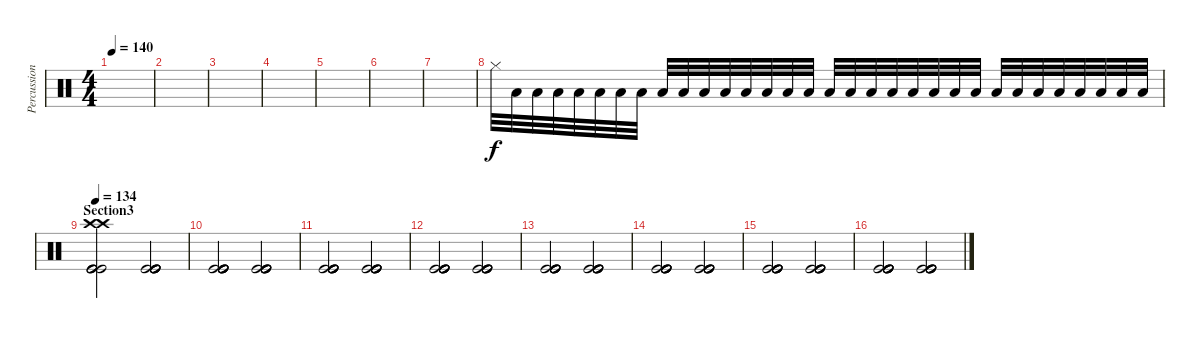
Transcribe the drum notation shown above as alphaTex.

\track ("Percussion" "Percussion") {instrument percussion}
\staff {score}
\articulation defaults
\ts (4 4)
\tempo 140
\clef neutral
\ks c
|
|
|
|
|
|
|
"Hi-Hat (closed)".32 "Low Floor Tom (hit)".32 "Low Floor Tom (hit)".32 "Low Floor Tom (hit)".32 "Low Floor Tom (hit)".32 "Low Floor Tom (hit)".32 "Low Floor Tom (hit)".32 "Low Floor Tom (hit)".32 "Low Floor Tom (hit)".32 "Low Floor Tom (hit)".32 "Low Floor Tom (hit)".32 "Low Floor Tom (hit)".32 "Low Floor Tom (hit)".32 "Low Floor Tom (hit)".32 "Low Floor Tom (hit)".32 "Low Floor Tom (hit)".32 "Low Floor Tom (hit)".32 "Low Floor Tom (hit)".32 "Low Floor Tom (hit)".32 "Low Floor Tom (hit)".32 "Low Floor Tom (hit)".32 "Low Floor Tom (hit)".32 "Low Floor Tom (hit)".32 "Low Floor Tom (hit)".32 "Low Floor Tom (hit)".32 "Low Floor Tom (hit)".32 "Low Floor Tom (hit)".32 "Low Floor Tom (hit)".32 "Low Floor Tom (hit)".32 "Low Floor Tom (hit)".32 "Low Floor Tom (hit)".32 "Low Floor Tom (hit)".32 |
\section ("" "Section3")
\tempo 134
("Kick (hit)" "Kick (hit)" "Kick (hit)" "Kick (hit)" "Crash high (hit)" "Crash high (hit)").2 ("Kick (hit)" "Kick (hit)" "Kick (hit)" "Kick (hit)" "Kick (hit)" "Kick (hit)").2 |
("Kick (hit)" "Kick (hit)" "Kick (hit)" "Kick (hit)" "Kick (hit)" "Kick (hit)").2 ("Kick (hit)" "Kick (hit)" "Kick (hit)" "Kick (hit)" "Kick (hit)" "Kick (hit)").2 |
("Kick (hit)" "Kick (hit)" "Kick (hit)" "Kick (hit)" "Kick (hit)" "Kick (hit)").2 ("Kick (hit)" "Kick (hit)" "Kick (hit)" "Kick (hit)" "Kick (hit)" "Kick (hit)").2 |
("Kick (hit)" "Kick (hit)" "Kick (hit)" "Kick (hit)" "Kick (hit)" "Kick (hit)").2 ("Kick (hit)" "Kick (hit)" "Kick (hit)" "Kick (hit)" "Kick (hit)" "Kick (hit)").2 |
("Kick (hit)" "Kick (hit)" "Kick (hit)" "Kick (hit)" "Kick (hit)" "Kick (hit)").2 ("Kick (hit)" "Kick (hit)" "Kick (hit)" "Kick (hit)" "Kick (hit)" "Kick (hit)").2 |
("Kick (hit)" "Kick (hit)" "Kick (hit)" "Kick (hit)" "Kick (hit)" "Kick (hit)").2 ("Kick (hit)" "Kick (hit)" "Kick (hit)" "Kick (hit)" "Kick (hit)" "Kick (hit)").2 |
("Kick (hit)" "Kick (hit)" "Kick (hit)" "Kick (hit)" "Kick (hit)" "Kick (hit)").2 ("Kick (hit)" "Kick (hit)" "Kick (hit)" "Kick (hit)" "Kick (hit)" "Kick (hit)").2 |
("Kick (hit)" "Kick (hit)" "Kick (hit)" "Kick (hit)" "Kick (hit)" "Kick (hit)").2 ("Kick (hit)" "Kick (hit)" "Kick (hit)" "Kick (hit)" "Kick (hit)" "Kick (hit)").2
